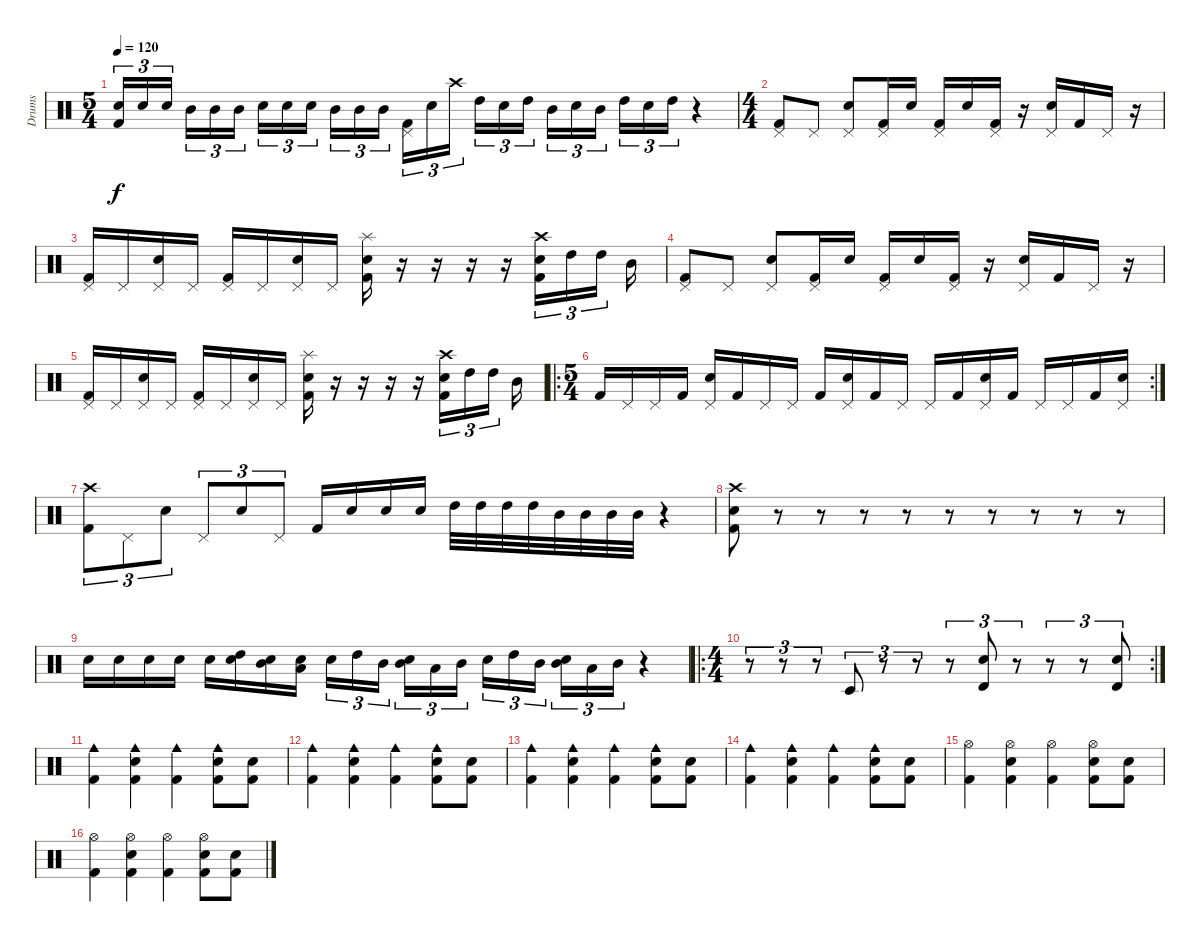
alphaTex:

\track ("Drums" "Drums") {instrument percussion}
\staff {score}
\articulation defaults
\ts (5 4)
\tempo 120
\clef neutral
\ks c
("Electric Snare (hit)" "Kick (hit) 2").16{tu (3 2) dy f} "Electric Snare (hit)".16{tu (3 2)} "Electric Snare (hit)".16{tu (3 2)} "Mid Tom (hit)".16{tu (3 2)} "Mid Tom (hit)".16{tu (3 2)} "Mid Tom (hit)".16{tu (3 2)} "Electric Snare (hit)".16{tu (3 2)} "Electric Snare (hit)".16{tu (3 2)} "Electric Snare (hit)".16{tu (3 2)} "Mid Tom (hit)".16{tu (3 2)} "Mid Tom (hit)".16{tu (3 2)} "Mid Tom (hit)".16{tu (3 2)} ("Pedal Hi-Hat (hit)" "Kick (hit) 2").16{tu (3 2)} "Electric Snare (hit)".16{tu (3 2)} "Crash high (hit)".16{tu (3 2)} "High Tom (hit)".16{tu (3 2)} "Electric Snare (hit)".16{tu (3 2)} "High Tom (hit)".16{tu (3 2)} "Mid Tom (hit)".16{tu (3 2)} "Electric Snare (hit)".16{tu (3 2)} "Mid Tom (hit)".16{tu (3 2)} "High Tom (hit)".16{tu (3 2)} "Electric Snare (hit)".16{tu (3 2)} "High Tom (hit)".16{tu (3 2)} r.4 |
\ts (4 4)
("Pedal Hi-Hat (hit)" "Kick (hit) 2").8 "Pedal Hi-Hat (hit)".8 ("Pedal Hi-Hat (hit)" "Electric Snare (hit)").8 ("Pedal Hi-Hat (hit)" "Kick (hit) 2").16 "Electric Snare (hit)".16 ("Pedal Hi-Hat (hit)" "Kick (hit) 2").16 "Electric Snare (hit)".16 ("Pedal Hi-Hat (hit)" "Kick (hit) 2").16 r.16 ("Pedal Hi-Hat (hit)" "Electric Snare (hit)").16 "Kick (hit) 2".16 "Pedal Hi-Hat (hit)".16 r.16 |
("Pedal Hi-Hat (hit)" "Kick (hit) 2").16 "Pedal Hi-Hat (hit)".16 ("Pedal Hi-Hat (hit)" "Electric Snare (hit)").16 "Pedal Hi-Hat (hit)".16 ("Pedal Hi-Hat (hit)" "Kick (hit) 2").16 "Pedal Hi-Hat (hit)".16 ("Pedal Hi-Hat (hit)" "Electric Snare (hit)").16 "Pedal Hi-Hat (hit)".16 ("Splash (hit)" "Electric Snare (hit)" "Kick (hit) 2").16 r.16 r.16 r.16 r.16 ("Crash high (hit)" "Electric Snare (hit)" "Kick (hit) 2").16{tu (3 2)} "High Tom (hit)".16{tu (3 2)} "High Tom (hit)".16{tu (3 2)} "Mid Tom (hit)".16 |
("Pedal Hi-Hat (hit)" "Kick (hit) 2").8 "Pedal Hi-Hat (hit)".8 ("Pedal Hi-Hat (hit)" "Electric Snare (hit)").8 ("Pedal Hi-Hat (hit)" "Kick (hit) 2").16 "Electric Snare (hit)".16 ("Pedal Hi-Hat (hit)" "Kick (hit) 2").16 "Electric Snare (hit)".16 ("Pedal Hi-Hat (hit)" "Kick (hit) 2").16 r.16 ("Pedal Hi-Hat (hit)" "Electric Snare (hit)").16 "Kick (hit) 2".16 "Pedal Hi-Hat (hit)".16 r.16 |
("Pedal Hi-Hat (hit)" "Kick (hit) 2").16 "Pedal Hi-Hat (hit)".16 ("Pedal Hi-Hat (hit)" "Electric Snare (hit)").16 "Pedal Hi-Hat (hit)".16 ("Pedal Hi-Hat (hit)" "Kick (hit) 2").16 "Pedal Hi-Hat (hit)".16 ("Pedal Hi-Hat (hit)" "Electric Snare (hit)").16 "Pedal Hi-Hat (hit)".16 ("Splash (hit)" "Electric Snare (hit)" "Kick (hit) 2").16 r.16 r.16 r.16 r.16 ("Crash high (hit)" "Electric Snare (hit)" "Kick (hit) 2").16{tu (3 2)} "High Tom (hit)".16{tu (3 2)} "High Tom (hit)".16{tu (3 2)} "Mid Tom (hit)".16 |
\ro
\rc 2
\ts (5 4)
"Kick (hit) 2".16 "Pedal Hi-Hat (hit)".16 "Pedal Hi-Hat (hit)".16 "Kick (hit) 2".16 ("Pedal Hi-Hat (hit)" "Electric Snare (hit)").16 "Kick (hit) 2".16 "Pedal Hi-Hat (hit)".16 "Pedal Hi-Hat (hit)".16 "Kick (hit) 2".16 ("Pedal Hi-Hat (hit)" "Electric Snare (hit)").16 "Kick (hit) 2".16 "Pedal Hi-Hat (hit)".16 "Pedal Hi-Hat (hit)".16 "Kick (hit) 2".16 ("Pedal Hi-Hat (hit)" "Electric Snare (hit)").16 "Kick (hit) 2".16 "Pedal Hi-Hat (hit)".16 "Pedal Hi-Hat (hit)".16 "Kick (hit) 2".16 ("Pedal Hi-Hat (hit)" "Electric Snare (hit)").16 |
("Crash high (hit)" "Kick (hit) 2").8{tu (3 2)} "Pedal Hi-Hat (hit)".8{tu (3 2)} "Electric Snare (hit)".8{tu (3 2)} "Pedal Hi-Hat (hit)".8{tu (3 2)} "Electric Snare (hit)".8{tu (3 2)} "Pedal Hi-Hat (hit)".8{tu (3 2)} "Kick (hit) 2".16 "Electric Snare (hit)".16 "Electric Snare (hit)".16 "Electric Snare (hit)".16 "High Tom (hit)".32 "High Tom (hit)".32 "High Tom (hit)".32 "High Tom (hit)".32 "Mid Tom (hit)".32 "Mid Tom (hit)".32 "Mid Tom (hit)".32 "Mid Tom (hit)".32 r.4 |
("Crash high (hit)" "Electric Snare (hit)" "Kick (hit) 2").8 r.8 r.8 r.8 r.8 r.8 r.8 r.8 r.8 r.8 |
"Electric Snare (hit)".16 "Electric Snare (hit)".16 "Electric Snare (hit)".16 "Electric Snare (hit)".16 "Electric Snare (hit)".16 ("Electric Snare (hit)" "High Tom (hit)").16 ("Electric Snare (hit)" "Mid Tom (hit)").16 ("Electric Snare (hit)" "Low Tom (hit)").16 "Electric Snare (hit)".16{tu (3 2)} "High Tom (hit)".16{tu (3 2)} "Mid Tom (hit)".16{tu (3 2)} ("Electric Snare (hit)" "Mid Tom (hit)").16{tu (3 2)} "Low Tom (hit)".16{tu (3 2)} "Mid Tom (hit)".16{tu (3 2)} "Electric Snare (hit)".16{tu (3 2)} "High Tom (hit)".16{tu (3 2)} "Mid Tom (hit)".16{tu (3 2)} ("Electric Snare (hit)" "Mid Tom (hit)").16{tu (3 2)} "Low Tom (hit)".16{tu (3 2)} "Mid Tom (hit)".16{tu (3 2)} r.4 |
\ro
\rc 2
\ts (4 4)
r.8{tu (3 2)} r.8{tu (3 2)} r.8{tu (3 2)} "Timbale low (hit)".8{tu (3 2)} r.8{tu (3 2)} r.8{tu (3 2)} r.8{tu (3 2)} ("Timbale high (hit)" "Snare (hit)").8{tu (3 2)} r.8{tu (3 2)} r.8{tu (3 2)} r.8{tu (3 2)} ("Timbale high (hit)" "Snare (hit)").8{tu (3 2)} |
("Cowbell medium (hit)" "Kick (hit) 2").4 ("Cowbell medium (hit)" "Electric Snare (hit)" "Kick (hit) 2").4 ("Cowbell medium (hit)" "Kick (hit) 2").4 ("Cowbell medium (hit)" "Electric Snare (hit)" "Kick (hit) 2").8 ("Electric Snare (hit)" "Kick (hit) 2").8 |
("Cowbell medium (hit)" "Kick (hit) 2").4 ("Cowbell medium (hit)" "Electric Snare (hit)" "Kick (hit) 2").4 ("Cowbell medium (hit)" "Kick (hit) 2").4 ("Cowbell medium (hit)" "Electric Snare (hit)" "Kick (hit) 2").8 ("Electric Snare (hit)" "Kick (hit) 2").8 |
("Cowbell medium (hit)" "Kick (hit) 2").4 ("Cowbell medium (hit)" "Electric Snare (hit)" "Kick (hit) 2").4 ("Cowbell medium (hit)" "Kick (hit) 2").4 ("Cowbell medium (hit)" "Electric Snare (hit)" "Kick (hit) 2").8 ("Electric Snare (hit)" "Kick (hit) 2").8 |
("Cowbell medium (hit)" "Kick (hit) 2").4 ("Cowbell medium (hit)" "Electric Snare (hit)" "Kick (hit) 2").4 ("Cowbell medium (hit)" "Kick (hit) 2").4 ("Cowbell medium (hit)" "Electric Snare (hit)" "Kick (hit) 2").8 ("Electric Snare (hit)" "Kick (hit) 2").8 |
("Hi-Hat (open)" "Kick (hit) 2").4 ("Hi-Hat (open)" "Electric Snare (hit)" "Kick (hit) 2").4 ("Hi-Hat (open)" "Kick (hit) 2").4 ("Hi-Hat (open)" "Electric Snare (hit)" "Kick (hit) 2").8 ("Electric Snare (hit)" "Kick (hit) 2").8 |
("Hi-Hat (open)" "Kick (hit) 2").4 ("Hi-Hat (open)" "Electric Snare (hit)" "Kick (hit) 2").4 ("Hi-Hat (open)" "Kick (hit) 2").4 ("Hi-Hat (open)" "Electric Snare (hit)" "Kick (hit) 2").8 ("Electric Snare (hit)" "Kick (hit) 2").8
